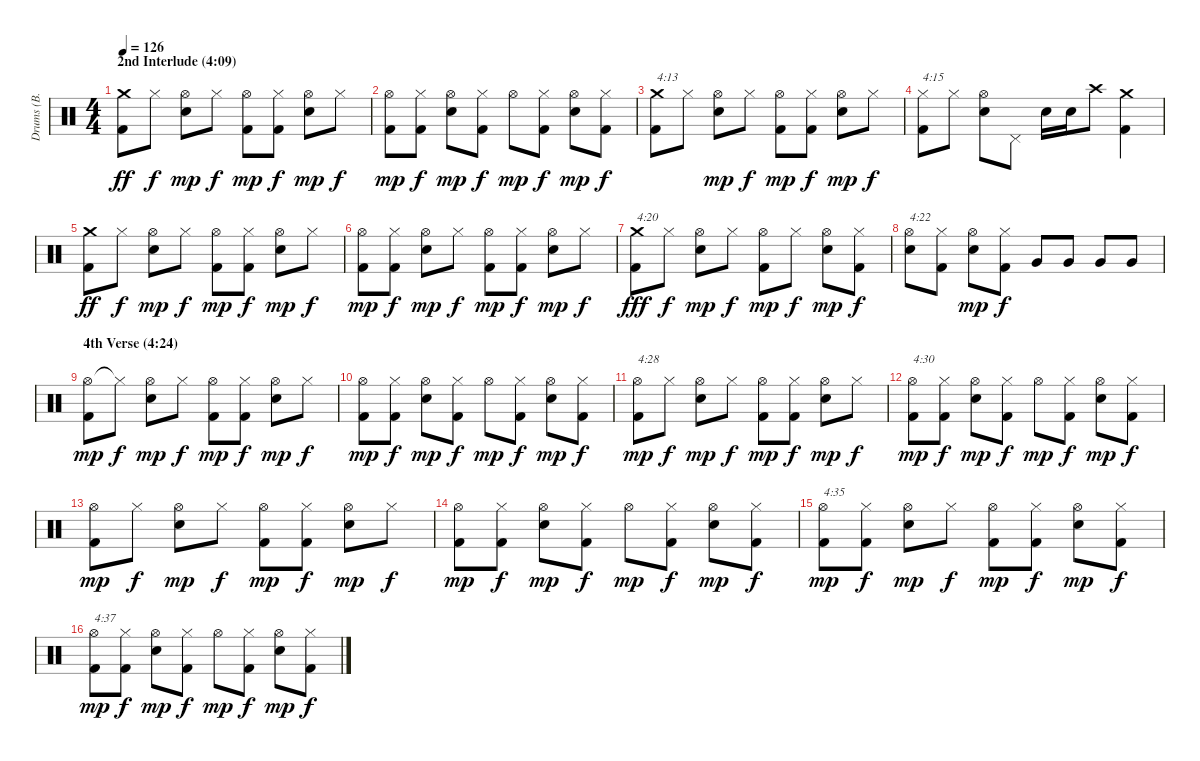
\track ("Drums (B. Downey)" "Drums (B. ") {instrument percussion}
\staff {score}
\articulation defaults
\ts (4 4)
\section ("" "2nd Interlude (4:09)")
\tempo 126
\clef neutral
\ks c
("Crash medium (hit)" "Kick (hit) 2").8{dy ff balance 8} "Hi-Hat (closed)".8{dy f} ("Hi-Hat (open)" "Electric Snare (hit)").8{dy mp} "Hi-Hat (closed)".8{dy f} ("Hi-Hat (open)" "Kick (hit) 2").8{dy mp} ("Hi-Hat (closed)" "Kick (hit) 2").8{dy f} ("Hi-Hat (open)" "Electric Snare (hit)").8{dy mp} "Hi-Hat (closed)".8{dy f} |
("Hi-Hat (open)" "Kick (hit) 2").8{dy mp} ("Hi-Hat (closed)" "Kick (hit) 2").8{dy f} ("Hi-Hat (open)" "Electric Snare (hit)").8{dy mp} ("Hi-Hat (closed)" "Kick (hit) 2").8{dy f} "Hi-Hat (open)".8{dy mp} ("Hi-Hat (closed)" "Kick (hit) 2").8{dy f} ("Hi-Hat (open)" "Electric Snare (hit)").8{dy mp} ("Hi-Hat (closed)" "Kick (hit) 2").8{dy f} |
("Crash medium (hit)" "Kick (hit) 2").8{txt "4:13"} "Hi-Hat (closed)".8 ("Hi-Hat (open)" "Electric Snare (hit)").8{dy mp} "Hi-Hat (closed)".8{dy f} ("Hi-Hat (open)" "Kick (hit) 2").8{dy mp} ("Hi-Hat (closed)" "Kick (hit) 2").8{dy f} ("Hi-Hat (open)" "Electric Snare (hit)").8{dy mp} "Hi-Hat (closed)".8{dy f} |
("Hi-Hat (closed)" "Kick (hit) 2").8{txt "4:15"} "Hi-Hat (closed)".8 ("Hi-Hat (open)" "Electric Snare (hit)").8 "Pedal Hi-Hat (hit)".8 "Electric Snare (hit)".16 "Electric Snare (hit)".16 "Crash high (hit)".8{balance 13} ("Crash medium (hit)" "Kick (hit) 2").4{balance 3} |
("Crash medium (hit)" "Kick (hit) 2").8{dy ff balance 8} "Hi-Hat (closed)".8{dy f} ("Hi-Hat (open)" "Electric Snare (hit)").8{dy mp} "Hi-Hat (closed)".8{dy f} ("Hi-Hat (open)" "Kick (hit) 2").8{dy mp} ("Hi-Hat (closed)" "Kick (hit) 2").8{dy f} ("Hi-Hat (open)" "Electric Snare (hit)").8{dy mp} "Hi-Hat (closed)".8{dy f} |
("Hi-Hat (open)" "Kick (hit) 2").8{dy mp} ("Hi-Hat (closed)" "Kick (hit) 2").8{dy f} ("Hi-Hat (open)" "Electric Snare (hit)").8{dy mp} "Hi-Hat (closed)".8{dy f} ("Hi-Hat (open)" "Kick (hit) 2").8{dy mp} ("Hi-Hat (closed)" "Kick (hit) 2").8{dy f} ("Hi-Hat (open)" "Electric Snare (hit)").8{dy mp} "Hi-Hat (closed)".8{dy f} |
("Crash medium (hit)" "Kick (hit) 2").8{txt "4:20" dy fff} "Hi-Hat (closed)".8{dy f} ("Hi-Hat (open)" "Electric Snare (hit)").8{dy mp} "Hi-Hat (closed)".8{dy f} ("Hi-Hat (open)" "Kick (hit) 2").8{dy mp} "Hi-Hat (closed)".8{dy f} ("Hi-Hat (open)" "Electric Snare (hit)").8{dy mp} ("Hi-Hat (closed)" "Kick (hit) 2").8{dy f} |
("Hi-Hat (open)" "Electric Snare (hit)").8{txt "4:22"} ("Hi-Hat (closed)" "Kick (hit) 2").8 ("Hi-Hat (open)" "Electric Snare (hit)").8{dy mp} ("Hi-Hat (closed)" "Kick (hit) 2").8{dy f} "Very Low Tom (hit)".8 "Very Low Tom (hit)".8 "Very Low Tom (hit)".8 "Very Low Tom (hit)".8 |
\section ("" "4th Verse (4:24)")
("Hi-Hat (open)" "Kick (hit) 2").8{dy mp} "Hi-Hat (closed)"{t}.8{dy f} ("Hi-Hat (open)" "Electric Snare (hit)").8{dy mp} "Hi-Hat (closed)".8{dy f} ("Hi-Hat (open)" "Kick (hit) 2").8{dy mp} ("Hi-Hat (closed)" "Kick (hit) 2").8{dy f} ("Hi-Hat (open)" "Electric Snare (hit)").8{dy mp} "Hi-Hat (closed)".8{dy f} |
("Hi-Hat (open)" "Kick (hit) 2").8{dy mp} ("Hi-Hat (closed)" "Kick (hit) 2").8{dy f} ("Hi-Hat (open)" "Electric Snare (hit)").8{dy mp} ("Hi-Hat (closed)" "Kick (hit) 2").8{dy f} "Hi-Hat (open)".8{dy mp} ("Hi-Hat (closed)" "Kick (hit) 2").8{dy f} ("Hi-Hat (open)" "Electric Snare (hit)").8{dy mp} ("Hi-Hat (closed)" "Kick (hit) 2").8{dy f} |
("Hi-Hat (open)" "Kick (hit) 2").8{txt "4:28" dy mp} "Hi-Hat (closed)".8{dy f} ("Hi-Hat (open)" "Electric Snare (hit)").8{dy mp} "Hi-Hat (closed)".8{dy f} ("Hi-Hat (open)" "Kick (hit) 2").8{dy mp} ("Hi-Hat (closed)" "Kick (hit) 2").8{dy f} ("Hi-Hat (open)" "Electric Snare (hit)").8{dy mp} "Hi-Hat (closed)".8{dy f} |
("Hi-Hat (open)" "Kick (hit) 2").8{txt "4:30" dy mp} ("Hi-Hat (closed)" "Kick (hit) 2").8{dy f} ("Hi-Hat (open)" "Electric Snare (hit)").8{dy mp} ("Hi-Hat (closed)" "Kick (hit) 2").8{dy f} "Hi-Hat (open)".8{dy mp} ("Hi-Hat (closed)" "Kick (hit) 2").8{dy f} ("Hi-Hat (open)" "Electric Snare (hit)").8{dy mp} ("Hi-Hat (closed)" "Kick (hit) 2").8{dy f} |
("Hi-Hat (open)" "Kick (hit) 2").8{dy mp} "Hi-Hat (closed)".8{dy f} ("Hi-Hat (open)" "Electric Snare (hit)").8{dy mp} "Hi-Hat (closed)".8{dy f} ("Hi-Hat (open)" "Kick (hit) 2").8{dy mp} ("Hi-Hat (closed)" "Kick (hit) 2").8{dy f} ("Hi-Hat (open)" "Electric Snare (hit)").8{dy mp} "Hi-Hat (closed)".8{dy f} |
("Hi-Hat (open)" "Kick (hit) 2").8{dy mp} ("Hi-Hat (closed)" "Kick (hit) 2").8{dy f} ("Hi-Hat (open)" "Electric Snare (hit)").8{dy mp} ("Hi-Hat (closed)" "Kick (hit) 2").8{dy f} "Hi-Hat (open)".8{dy mp} ("Hi-Hat (closed)" "Kick (hit) 2").8{dy f} ("Hi-Hat (open)" "Electric Snare (hit)").8{dy mp} ("Hi-Hat (closed)" "Kick (hit) 2").8{dy f} |
("Hi-Hat (open)" "Kick (hit) 2").8{txt "4:35" dy mp} ("Hi-Hat (closed)" "Kick (hit) 2").8{dy f} ("Hi-Hat (open)" "Electric Snare (hit)").8{dy mp} "Hi-Hat (closed)".8{dy f} ("Hi-Hat (open)" "Kick (hit) 2").8{dy mp} ("Hi-Hat (closed)" "Kick (hit) 2").8{dy f} ("Hi-Hat (open)" "Electric Snare (hit)").8{dy mp} ("Hi-Hat (closed)" "Kick (hit) 2").8{dy f} |
("Hi-Hat (open)" "Kick (hit) 2").8{txt "4:37" dy mp} ("Hi-Hat (closed)" "Kick (hit) 2").8{dy f} ("Hi-Hat (open)" "Electric Snare (hit)").8{dy mp} ("Hi-Hat (closed)" "Kick (hit) 2").8{dy f} "Hi-Hat (open)".8{dy mp} ("Hi-Hat (closed)" "Kick (hit) 2").8{dy f} ("Hi-Hat (open)" "Electric Snare (hit)").8{dy mp} ("Hi-Hat (closed)" "Kick (hit) 2").8{dy f}
